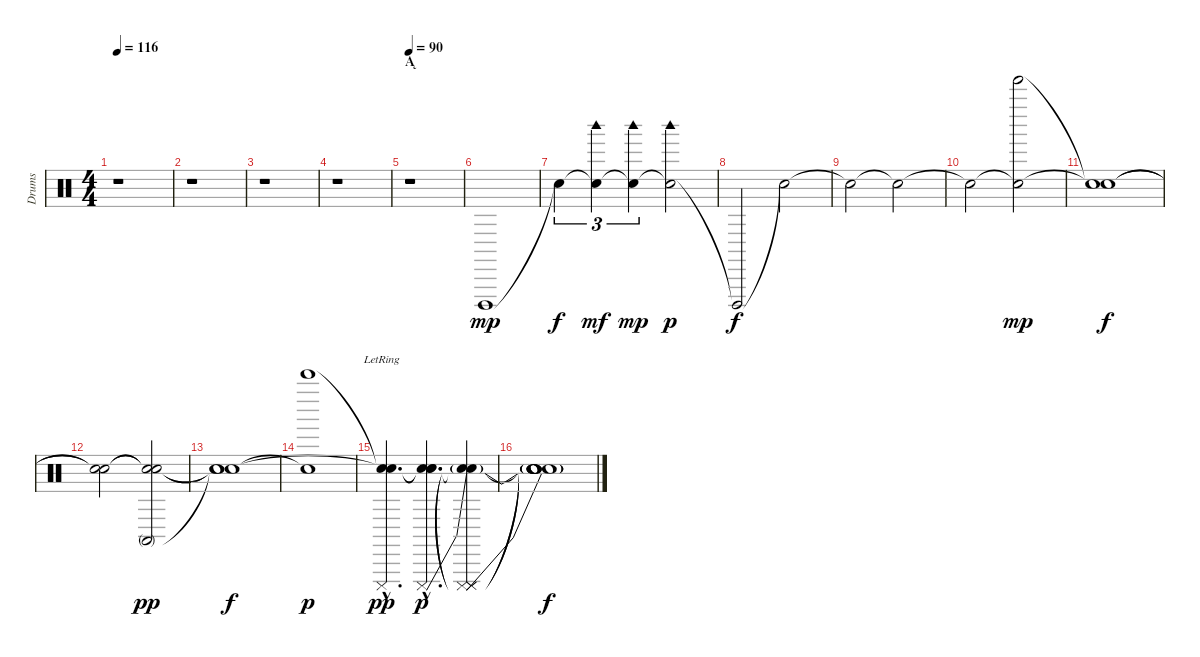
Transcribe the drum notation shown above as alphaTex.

\track ("Drums" "Drums") {instrument percussion}
\staff {score}
\articulation defaults
\ts (4 4)
\tempo 116
\clef neutral
\ks c
r.1{dy f} |
r.1 |
r.1 |
r.1 |
\section ("" "Ą")
\tempo 90
r.1 |
"Cuica (open)".1{dy mp} |
"Snare (hit)"{t}.4{tu (3 2) dy f} ("Snare (hit)"{t} "Woodblock high (hit)").4{tu (3 2) dy mf} ("Snare (hit)"{t} "Woodblock high (hit)").4{tu (3 2) dy mp} ("Snare (hit)"{t} "Woodblock high (hit)").2{dy p} |
"Cuica (open)"{t}.2{dy f} "Snare (hit)"{t}.2 |
"Snare (hit)"{t}.2 "Snare (hit)"{t}.2 |
"Snare (hit)"{t}.2 ("Snare (hit)"{t} "Tinkle Bell (hit)").2{dy mp} |
("Snare (hit)"{t} "Snare (hit)"{t}).1{dy f} |
("Snare (hit)"{t} "Snare (hit)"{t}).2 ("Snare (hit)"{t} "Snare (hit)"{t} "Conga high (mute)").2{dy pp} |
("Snare (hit)"{t} "Snare (hit)"{t} "Snare (hit)"{t}).1{dy f} |
("Snare (hit)"{t} "Bell Tree (hit)").1{dy p} |
("Cuica (mute)"{hac lr} "Snare (hit)"{hac t} "Snare (hit)"{hac t}).4{d dy pp} ("Cuica (mute)"{be (bend 0 0 60 12) hac} "Snare (hit)"{hac t} "Snare (hit)"{hac t} "Snare (hit)"{hac}).4{d dy p} ("Snare (hit)"{t} "Cuica (mute)"{t} "Cuica (mute)"{t} "Snare (hit)"{t} "Cuica (mute)"{be (bend 0 0 60 8)}).4 |
("Snare (hit)"{t} "Snare (hit)"{t} "Snare (hit)"{t} "Snare (hit)"{t} "Snare (hit)"{t} "Snare (hit)").1{dy f}
